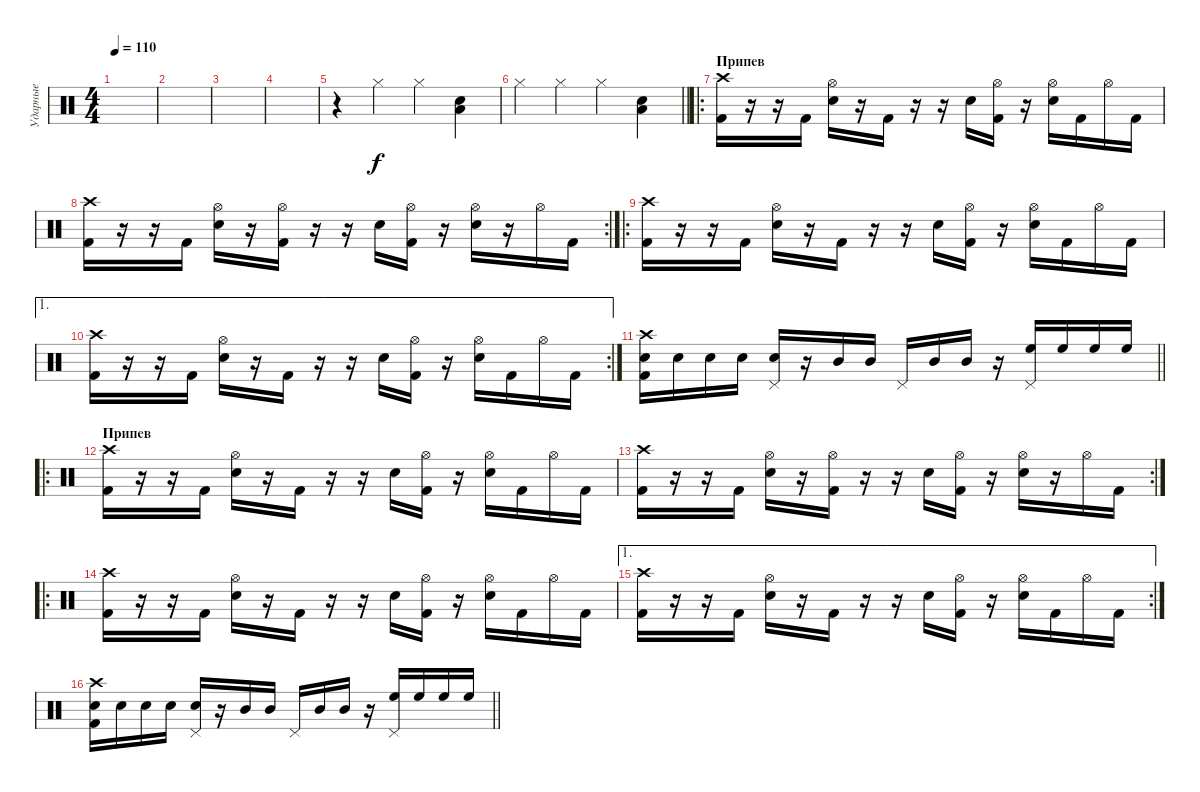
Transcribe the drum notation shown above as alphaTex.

\track ("Ударные" "Ударные") {instrument percussion}
\staff {score}
\articulation defaults
\ts (4 4)
\tempo 110
\clef neutral
\ks c
|
|
|
|
r.4 "Hi-Hat (closed)".4 "Hi-Hat (closed)".4 ("Low Floor Tom (hit)" "Electric Snare (hit)").4 |
\barLineRight lightlight "Hi-Hat (closed)".4 "Hi-Hat (closed)".4 "Hi-Hat (closed)".4
("Low Floor Tom (hit)" "Electric Snare (hit)").4 |
\ro
\section ("" "Припев")
("Kick (hit) 2" "Crash high (hit)").16 r.16 r.16 "Kick (hit) 2".16 ("Electric Snare (hit)" "Hi-Hat (open)").16 r.16 "Kick (hit) 2".16 r.16 r.16 "Electric Snare (hit)".16 ("Kick (hit) 2" "Hi-Hat (open)").16 r.16 ("Electric Snare (hit)" "Hi-Hat (open)").16 "Kick (hit) 2".16 "Hi-Hat (open)".16 "Kick (hit) 2".16 |
\rc 2
("Kick (hit) 2" "Crash high (hit)").16 r.16 r.16 "Kick (hit) 2".16 ("Electric Snare (hit)" "Hi-Hat (open)").16 r.16 ("Kick (hit) 2" "Hi-Hat (open)").16 r.16 r.16 "Electric Snare (hit)".16 ("Kick (hit) 2" "Hi-Hat (open)").16 r.16 ("Electric Snare (hit)" "Hi-Hat (open)").16 r.16 "Hi-Hat (open)".16 "Kick (hit) 2".16 |
\ro
("Kick (hit) 2" "Crash high (hit)").16 r.16 r.16 "Kick (hit) 2".16 ("Electric Snare (hit)" "Hi-Hat (open)").16 r.16 "Kick (hit) 2".16 r.16 r.16 "Electric Snare (hit)".16 ("Kick (hit) 2" "Hi-Hat (open)").16 r.16 ("Electric Snare (hit)" "Hi-Hat (open)").16 "Kick (hit) 2".16 "Hi-Hat (open)".16 "Kick (hit) 2".16 |
\ae 1
\rc 2
("Kick (hit) 2" "Crash high (hit)").16 r.16 r.16 "Kick (hit) 2".16 ("Electric Snare (hit)" "Hi-Hat (open)").16 r.16 "Kick (hit) 2".16 r.16 r.16 "Electric Snare (hit)".16 ("Kick (hit) 2" "Hi-Hat (open)").16 r.16 ("Electric Snare (hit)" "Hi-Hat (open)").16 "Kick (hit) 2".16 "Hi-Hat (open)".16 "Kick (hit) 2".16 |
\barLineRight lightlight
("Kick (hit) 2" "Electric Snare (hit)" "Crash high (hit)").16 "Electric Snare (hit)".16 "Electric Snare (hit)".16 "Electric Snare (hit)".16 ("Electric Snare (hit)" "Pedal Hi-Hat (hit)").16 r.16 "Mid Tom (hit)".16 "Mid Tom (hit)".16 "Pedal Hi-Hat (hit)".16 "Mid Tom (hit)".16 "Mid Tom (hit)".16 r.16 ("High Floor Tom (hit)" "Pedal Hi-Hat (hit)").16 "High Floor Tom (hit)".16 "High Floor Tom (hit)".16 "High Floor Tom (hit)".16 |
\ro
\section ("" "Припев")
("Kick (hit) 2" "Crash high (hit)").16 r.16 r.16 "Kick (hit) 2".16 ("Electric Snare (hit)" "Hi-Hat (open)").16 r.16 "Kick (hit) 2".16 r.16 r.16 "Electric Snare (hit)".16 ("Kick (hit) 2" "Hi-Hat (open)").16 r.16 ("Electric Snare (hit)" "Hi-Hat (open)").16 "Kick (hit) 2".16 "Hi-Hat (open)".16 "Kick (hit) 2".16 |
\rc 2
("Kick (hit) 2" "Crash high (hit)").16 r.16 r.16 "Kick (hit) 2".16 ("Electric Snare (hit)" "Hi-Hat (open)").16 r.16 ("Kick (hit) 2" "Hi-Hat (open)").16 r.16 r.16 "Electric Snare (hit)".16 ("Kick (hit) 2" "Hi-Hat (open)").16 r.16 ("Electric Snare (hit)" "Hi-Hat (open)").16 r.16 "Hi-Hat (open)".16 "Kick (hit) 2".16 |
\ro
("Kick (hit) 2" "Crash high (hit)").16 r.16 r.16 "Kick (hit) 2".16 ("Electric Snare (hit)" "Hi-Hat (open)").16 r.16 "Kick (hit) 2".16 r.16 r.16 "Electric Snare (hit)".16 ("Kick (hit) 2" "Hi-Hat (open)").16 r.16 ("Electric Snare (hit)" "Hi-Hat (open)").16 "Kick (hit) 2".16 "Hi-Hat (open)".16 "Kick (hit) 2".16 |
\ae 1
\rc 2
("Kick (hit) 2" "Crash high (hit)").16 r.16 r.16 "Kick (hit) 2".16 ("Electric Snare (hit)" "Hi-Hat (open)").16 r.16 "Kick (hit) 2".16 r.16 r.16 "Electric Snare (hit)".16 ("Kick (hit) 2" "Hi-Hat (open)").16 r.16 ("Electric Snare (hit)" "Hi-Hat (open)").16 "Kick (hit) 2".16 "Hi-Hat (open)".16 "Kick (hit) 2".16 |
\barLineRight lightlight
("Kick (hit) 2" "Electric Snare (hit)" "Crash high (hit)").16 "Electric Snare (hit)".16 "Electric Snare (hit)".16 "Electric Snare (hit)".16 ("Electric Snare (hit)" "Pedal Hi-Hat (hit)").16 r.16 "Mid Tom (hit)".16 "Mid Tom (hit)".16 "Pedal Hi-Hat (hit)".16 "Mid Tom (hit)".16 "Mid Tom (hit)".16 r.16 ("High Floor Tom (hit)" "Pedal Hi-Hat (hit)").16 "High Floor Tom (hit)".16 "High Floor Tom (hit)".16 "High Floor Tom (hit)".16
